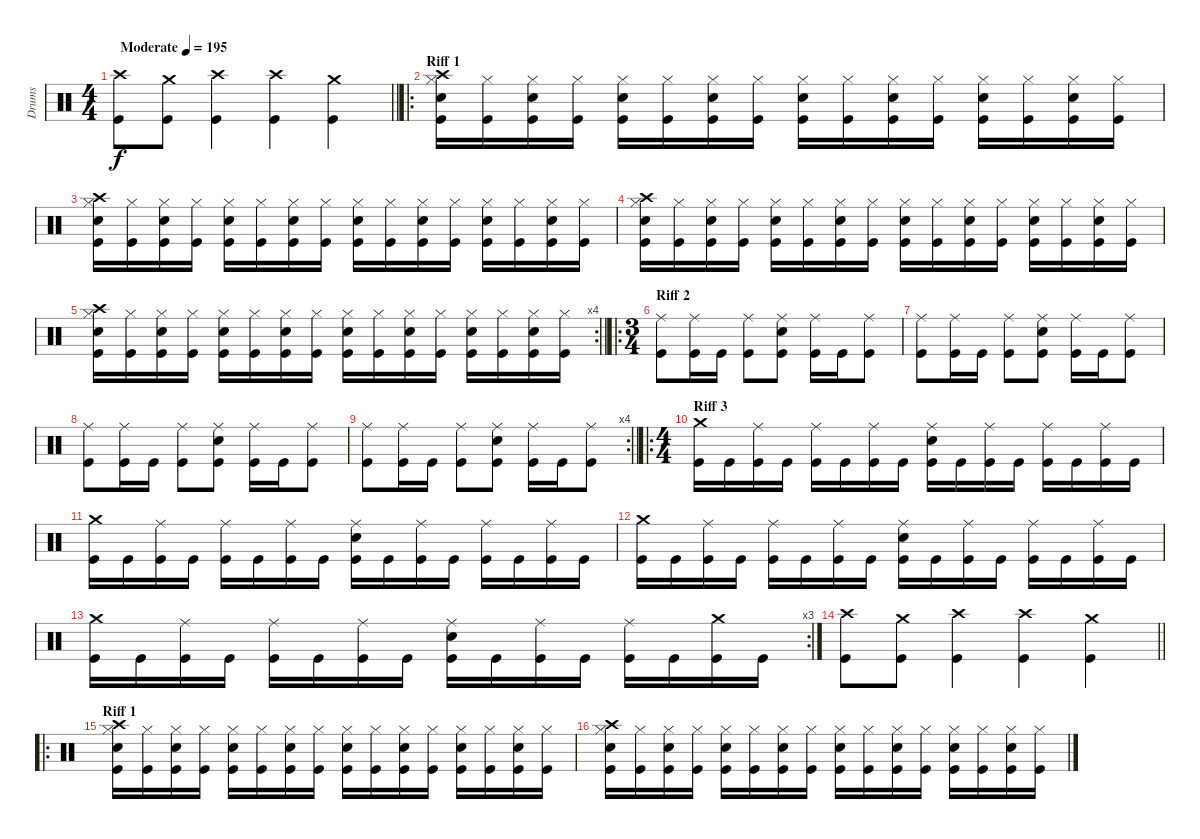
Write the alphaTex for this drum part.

\track ("Drums" "Drums") {instrument percussion}
\staff {score}
\articulation defaults
\ts (4 4)
\tempo (195 "Moderate")
\clef neutral
\barLineRight lightlight
\ks c
("Crash high (hit)" "Kick (hit)").8{dy f} ("Crash medium (hit)" "Kick (hit)").8 ("Crash high (hit)" "Kick (hit)").4 ("Crash high (hit)" "Kick (hit)").4 ("Crash medium (hit)" "Kick (hit)").4 |
\ro
\section ("" "Riff 1")
("Crash high (hit)" "Hi-Hat (closed)" "Snare (hit) 2" "Kick (hit)").16 ("Hi-Hat (closed)" "Kick (hit)").16 ("Hi-Hat (closed)" "Snare (hit) 2" "Kick (hit)").16 ("Hi-Hat (closed)" "Kick (hit)").16 ("Hi-Hat (closed)" "Snare (hit) 2" "Kick (hit)").16 ("Hi-Hat (closed)" "Kick (hit)").16 ("Hi-Hat (closed)" "Snare (hit) 2" "Kick (hit)").16 ("Hi-Hat (closed)" "Kick (hit)").16 ("Hi-Hat (closed)" "Snare (hit) 2" "Kick (hit)").16 ("Hi-Hat (closed)" "Kick (hit)").16 ("Hi-Hat (closed)" "Snare (hit) 2" "Kick (hit)").16 ("Hi-Hat (closed)" "Kick (hit)").16 ("Hi-Hat (closed)" "Snare (hit) 2" "Kick (hit)").16 ("Hi-Hat (closed)" "Kick (hit)").16 ("Hi-Hat (closed)" "Snare (hit) 2" "Kick (hit)").16 ("Hi-Hat (closed)" "Kick (hit)").16 |
("Crash high (hit)" "Hi-Hat (closed)" "Snare (hit) 2" "Kick (hit)").16 ("Hi-Hat (closed)" "Kick (hit)").16 ("Hi-Hat (closed)" "Snare (hit) 2" "Kick (hit)").16 ("Hi-Hat (closed)" "Kick (hit)").16 ("Hi-Hat (closed)" "Snare (hit) 2" "Kick (hit)").16 ("Hi-Hat (closed)" "Kick (hit)").16 ("Hi-Hat (closed)" "Snare (hit) 2" "Kick (hit)").16 ("Hi-Hat (closed)" "Kick (hit)").16 ("Hi-Hat (closed)" "Snare (hit) 2" "Kick (hit)").16 ("Hi-Hat (closed)" "Kick (hit)").16 ("Hi-Hat (closed)" "Snare (hit) 2" "Kick (hit)").16 ("Hi-Hat (closed)" "Kick (hit)").16 ("Hi-Hat (closed)" "Snare (hit) 2" "Kick (hit)").16 ("Hi-Hat (closed)" "Kick (hit)").16 ("Hi-Hat (closed)" "Snare (hit) 2" "Kick (hit)").16 ("Hi-Hat (closed)" "Kick (hit)").16 |
("Crash high (hit)" "Hi-Hat (closed)" "Snare (hit) 2" "Kick (hit)").16 ("Hi-Hat (closed)" "Kick (hit)").16 ("Hi-Hat (closed)" "Snare (hit) 2" "Kick (hit)").16 ("Hi-Hat (closed)" "Kick (hit)").16 ("Hi-Hat (closed)" "Snare (hit) 2" "Kick (hit)").16 ("Hi-Hat (closed)" "Kick (hit)").16 ("Hi-Hat (closed)" "Snare (hit) 2" "Kick (hit)").16 ("Hi-Hat (closed)" "Kick (hit)").16 ("Hi-Hat (closed)" "Snare (hit) 2" "Kick (hit)").16 ("Hi-Hat (closed)" "Kick (hit)").16 ("Hi-Hat (closed)" "Snare (hit) 2" "Kick (hit)").16 ("Hi-Hat (closed)" "Kick (hit)").16 ("Hi-Hat (closed)" "Snare (hit) 2" "Kick (hit)").16 ("Hi-Hat (closed)" "Kick (hit)").16 ("Hi-Hat (closed)" "Snare (hit) 2" "Kick (hit)").16 ("Hi-Hat (closed)" "Kick (hit)").16 |
\rc 4
\barLineRight lightlight
("Crash high (hit)" "Hi-Hat (closed)" "Snare (hit) 2" "Kick (hit)").16 ("Hi-Hat (closed)" "Kick (hit)").16 ("Hi-Hat (closed)" "Snare (hit) 2" "Kick (hit)").16 ("Hi-Hat (closed)" "Kick (hit)").16 ("Hi-Hat (closed)" "Snare (hit) 2" "Kick (hit)").16 ("Hi-Hat (closed)" "Kick (hit)").16 ("Hi-Hat (closed)" "Snare (hit) 2" "Kick (hit)").16 ("Hi-Hat (closed)" "Kick (hit)").16 ("Hi-Hat (closed)" "Snare (hit) 2" "Kick (hit)").16 ("Hi-Hat (closed)" "Kick (hit)").16 ("Hi-Hat (closed)" "Snare (hit) 2" "Kick (hit)").16 ("Hi-Hat (closed)" "Kick (hit)").16 ("Hi-Hat (closed)" "Snare (hit) 2" "Kick (hit)").16 ("Hi-Hat (closed)" "Kick (hit)").16 ("Hi-Hat (closed)" "Snare (hit) 2" "Kick (hit)").16 ("Hi-Hat (closed)" "Kick (hit)").16 |
\ro
\ts (3 4)
\section ("" "Riff 2")
("Ride (middle)" "Kick (hit)").8 ("Ride (middle)" "Kick (hit)").16 "Kick (hit)".16 ("Ride (middle)" "Kick (hit)").8 ("Ride (middle)" "Snare (hit) 2" "Kick (hit)").8 ("Ride (middle)" "Kick (hit)").16 "Kick (hit)".16 ("Ride (middle)" "Kick (hit)").8 |
("Ride (middle)" "Kick (hit)").8 ("Ride (middle)" "Kick (hit)").16 "Kick (hit)".16 ("Ride (middle)" "Kick (hit)").8 ("Ride (middle)" "Snare (hit) 2" "Kick (hit)").8 ("Ride (middle)" "Kick (hit)").16 "Kick (hit)".16 ("Ride (middle)" "Kick (hit)").8 |
("Ride (middle)" "Kick (hit)").8 ("Ride (middle)" "Kick (hit)").16 "Kick (hit)".16 ("Ride (middle)" "Kick (hit)").8 ("Ride (middle)" "Snare (hit) 2" "Kick (hit)").8 ("Ride (middle)" "Kick (hit)").16 "Kick (hit)".16 ("Ride (middle)" "Kick (hit)").8 |
\rc 4
\barLineRight lightlight
("Ride (middle)" "Kick (hit)").8 ("Ride (middle)" "Kick (hit)").16 "Kick (hit)".16 ("Ride (middle)" "Kick (hit)").8 ("Ride (middle)" "Snare (hit) 2" "Kick (hit)").8 ("Ride (middle)" "Kick (hit)").16 "Kick (hit)".16 ("Ride (middle)" "Kick (hit)").8 |
\ro
\ts (4 4)
\section ("" "Riff 3")
("Crash medium (hit)" "Kick (hit)").16 "Kick (hit)".16 ("Ride (middle)" "Kick (hit)").16 "Kick (hit)".16 ("Ride (middle)" "Kick (hit)").16 "Kick (hit)".16 ("Ride (middle)" "Kick (hit)").16 "Kick (hit)".16 ("Ride (middle)" "Snare (hit) 2" "Kick (hit)").16 "Kick (hit)".16 ("Ride (middle)" "Kick (hit)").16 "Kick (hit)".16 ("Ride (middle)" "Kick (hit)").16 "Kick (hit)".16 ("Ride (middle)" "Kick (hit)").16 "Kick (hit)".16 |
("Crash medium (hit)" "Kick (hit)").16 "Kick (hit)".16 ("Ride (middle)" "Kick (hit)").16 "Kick (hit)".16 ("Ride (middle)" "Kick (hit)").16 "Kick (hit)".16 ("Ride (middle)" "Kick (hit)").16 "Kick (hit)".16 ("Ride (middle)" "Snare (hit) 2" "Kick (hit)").16 "Kick (hit)".16 ("Ride (middle)" "Kick (hit)").16 "Kick (hit)".16 ("Ride (middle)" "Kick (hit)").16 "Kick (hit)".16 ("Ride (middle)" "Kick (hit)").16 "Kick (hit)".16 |
("Crash medium (hit)" "Kick (hit)").16 "Kick (hit)".16 ("Ride (middle)" "Kick (hit)").16 "Kick (hit)".16 ("Ride (middle)" "Kick (hit)").16 "Kick (hit)".16 ("Ride (middle)" "Kick (hit)").16 "Kick (hit)".16 ("Ride (middle)" "Snare (hit) 2" "Kick (hit)").16 "Kick (hit)".16 ("Ride (middle)" "Kick (hit)").16 "Kick (hit)".16 ("Ride (middle)" "Kick (hit)").16 "Kick (hit)".16 ("Ride (middle)" "Kick (hit)").16 "Kick (hit)".16 |
\rc 3
("Crash medium (hit)" "Kick (hit)").16 "Kick (hit)".16 ("Ride (middle)" "Kick (hit)").16 "Kick (hit)".16 ("Ride (middle)" "Kick (hit)").16 "Kick (hit)".16 ("Ride (middle)" "Kick (hit)").16 "Kick (hit)".16 ("Ride (middle)" "Snare (hit) 2" "Kick (hit)").16 "Kick (hit)".16 ("Ride (middle)" "Kick (hit)").16 "Kick (hit)".16 ("Ride (middle)" "Kick (hit)").16 "Kick (hit)".16 ("Crash medium (hit)" "Kick (hit)").16 "Kick (hit)".16 |
\barLineRight lightlight
("Crash high (hit)" "Kick (hit)").8 ("Crash medium (hit)" "Kick (hit)").8 ("Crash high (hit)" "Kick (hit)").4 ("Crash high (hit)" "Kick (hit)").4 ("Crash medium (hit)" "Kick (hit)").4 |
\ro
\section ("" "Riff 1")
("Crash high (hit)" "Hi-Hat (closed)" "Snare (hit) 2" "Kick (hit)").16 ("Hi-Hat (closed)" "Kick (hit)").16 ("Hi-Hat (closed)" "Snare (hit) 2" "Kick (hit)").16 ("Hi-Hat (closed)" "Kick (hit)").16 ("Hi-Hat (closed)" "Snare (hit) 2" "Kick (hit)").16 ("Hi-Hat (closed)" "Kick (hit)").16 ("Hi-Hat (closed)" "Snare (hit) 2" "Kick (hit)").16 ("Hi-Hat (closed)" "Kick (hit)").16 ("Hi-Hat (closed)" "Snare (hit) 2" "Kick (hit)").16 ("Hi-Hat (closed)" "Kick (hit)").16 ("Hi-Hat (closed)" "Snare (hit) 2" "Kick (hit)").16 ("Hi-Hat (closed)" "Kick (hit)").16 ("Hi-Hat (closed)" "Snare (hit) 2" "Kick (hit)").16 ("Hi-Hat (closed)" "Kick (hit)").16 ("Hi-Hat (closed)" "Snare (hit) 2" "Kick (hit)").16 ("Hi-Hat (closed)" "Kick (hit)").16 |
("Crash high (hit)" "Hi-Hat (closed)" "Snare (hit) 2" "Kick (hit)").16 ("Hi-Hat (closed)" "Kick (hit)").16 ("Hi-Hat (closed)" "Snare (hit) 2" "Kick (hit)").16 ("Hi-Hat (closed)" "Kick (hit)").16 ("Hi-Hat (closed)" "Snare (hit) 2" "Kick (hit)").16 ("Hi-Hat (closed)" "Kick (hit)").16 ("Hi-Hat (closed)" "Snare (hit) 2" "Kick (hit)").16 ("Hi-Hat (closed)" "Kick (hit)").16 ("Hi-Hat (closed)" "Snare (hit) 2" "Kick (hit)").16 ("Hi-Hat (closed)" "Kick (hit)").16 ("Hi-Hat (closed)" "Snare (hit) 2" "Kick (hit)").16 ("Hi-Hat (closed)" "Kick (hit)").16 ("Hi-Hat (closed)" "Snare (hit) 2" "Kick (hit)").16 ("Hi-Hat (closed)" "Kick (hit)").16 ("Hi-Hat (closed)" "Snare (hit) 2" "Kick (hit)").16 ("Hi-Hat (closed)" "Kick (hit)").16
